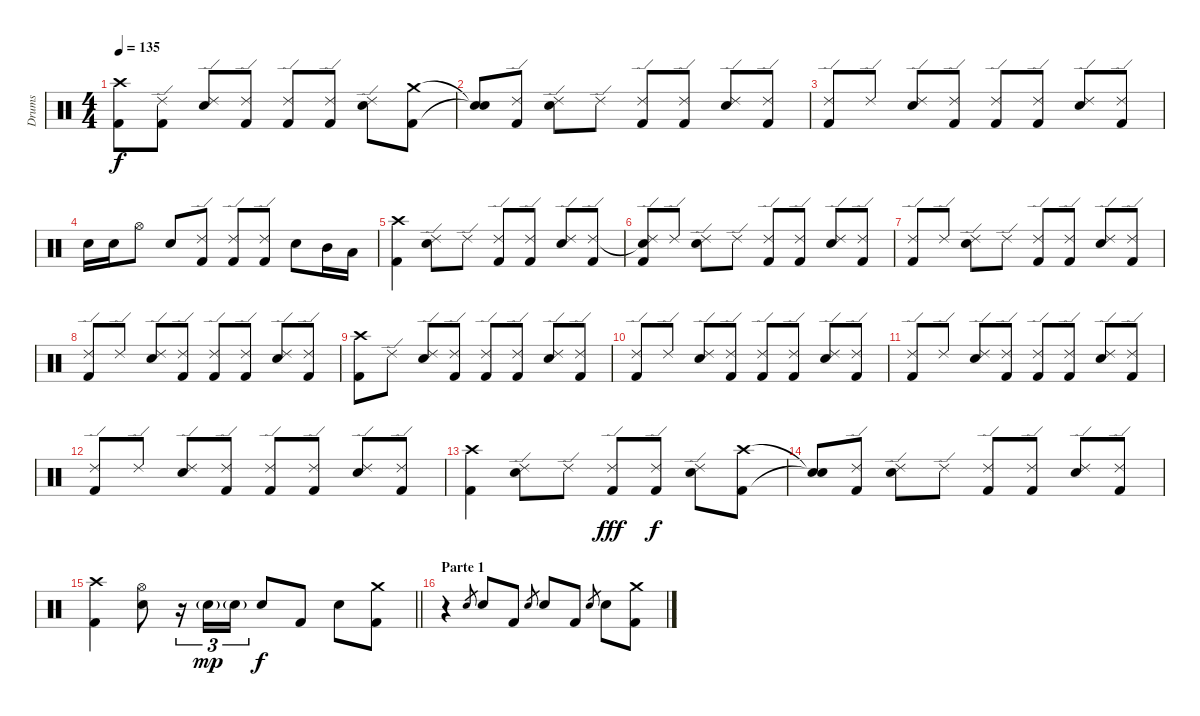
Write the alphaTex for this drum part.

\track ("Drums" "Drums") {instrument percussion}
\staff {score}
\articulation defaults
\ts (4 4)
\tempo 135
\clef neutral
\ks c
("Crash high (hit)"{t} "Kick (hit) 2"{t}).8{dy f} ("Ride (edge) 2" "Kick (hit) 2").8 ("Ride (edge) 2" "Electric Snare (hit)").8 ("Ride (edge) 2" "Kick (hit) 2").8 ("Ride (edge) 2" "Kick (hit) 2").8 ("Ride (edge) 2" "Kick (hit) 2").8 ("Ride (edge) 2" "Electric Snare (hit)").8 ("Crash medium (hit)" "Kick (hit) 2").8 |
("Snare (hit)"{t} "Snare (hit)"{t}).8 ("Ride (edge) 2" "Kick (hit) 2").8 ("Ride (edge) 2" "Electric Snare (hit)").8 "Ride (edge) 2".8 ("Ride (edge) 2" "Kick (hit) 2").8 ("Ride (edge) 2" "Kick (hit) 2").8 ("Ride (edge) 2" "Electric Snare (hit)").8 ("Ride (edge) 2" "Kick (hit) 2").8 |
("Ride (edge) 2" "Kick (hit) 2").8 "Ride (edge) 2".8 ("Ride (edge) 2" "Electric Snare (hit)").8 ("Ride (edge) 2" "Kick (hit) 2").8 ("Ride (edge) 2" "Kick (hit) 2").8 ("Ride (edge) 2" "Kick (hit) 2").8 ("Ride (edge) 2" "Electric Snare (hit)").8 ("Ride (edge) 2" "Kick (hit) 2").8 |
"Electric Snare (hit)".16 "Electric Snare (hit)".16 "Hi-Hat (open)".8 "Electric Snare (hit)".8 ("Ride (edge) 2" "Kick (hit) 2").8 ("Ride (edge) 2" "Kick (hit) 2").8 ("Ride (edge) 2" "Kick (hit) 2").8 "Electric Snare (hit)".8 "Mid Tom (hit)".16 "Low Tom (hit)".16 |
("Crash high (hit)" "Kick (hit) 2").4 ("Ride (edge) 2" "Electric Snare (hit)").8 "Ride (edge) 2".8 ("Ride (edge) 2" "Kick (hit) 2").8 ("Ride (edge) 2" "Kick (hit) 2").8 ("Ride (edge) 2" "Electric Snare (hit)").8 ("Ride (edge) 2" "Kick (hit) 2").8 |
("Snare (hit)"{t} "Ride (edge) 2" "Kick (hit) 2").8 "Ride (edge) 2".8 ("Ride (edge) 2" "Electric Snare (hit)").8 "Ride (edge) 2".8 ("Ride (edge) 2" "Kick (hit) 2").8 ("Ride (edge) 2" "Kick (hit) 2").8 ("Ride (edge) 2" "Electric Snare (hit)").8 ("Ride (edge) 2" "Kick (hit) 2").8 |
("Ride (edge) 2" "Kick (hit) 2").8 "Ride (edge) 2".8 ("Ride (edge) 2" "Electric Snare (hit)").8 "Ride (edge) 2".8 ("Ride (edge) 2" "Kick (hit) 2").8 ("Ride (edge) 2" "Kick (hit) 2").8 ("Ride (edge) 2" "Electric Snare (hit)").8 ("Ride (edge) 2" "Kick (hit) 2").8 |
("Ride (edge) 2" "Kick (hit) 2").8 "Ride (edge) 2".8 ("Ride (edge) 2" "Electric Snare (hit)").8 ("Ride (edge) 2" "Kick (hit) 2").8 ("Ride (edge) 2" "Kick (hit) 2").8 ("Ride (edge) 2" "Kick (hit) 2").8 ("Ride (edge) 2" "Electric Snare (hit)").8 ("Ride (edge) 2" "Kick (hit) 2").8 |
("Crash high (hit)" "Kick (hit) 2").8 "Ride (edge) 2".8 ("Ride (edge) 2" "Electric Snare (hit)").8 ("Ride (edge) 2" "Kick (hit) 2").8 ("Ride (edge) 2" "Kick (hit) 2").8 ("Ride (edge) 2" "Kick (hit) 2").8 ("Ride (edge) 2" "Electric Snare (hit)").8 ("Ride (edge) 2" "Kick (hit) 2").8 |
("Ride (edge) 2" "Kick (hit) 2").8 "Ride (edge) 2".8 ("Ride (edge) 2" "Electric Snare (hit)").8 ("Ride (edge) 2" "Kick (hit) 2").8 ("Ride (edge) 2" "Kick (hit) 2").8 ("Ride (edge) 2" "Kick (hit) 2").8 ("Ride (edge) 2" "Electric Snare (hit)").8 ("Ride (edge) 2" "Kick (hit) 2").8 |
("Ride (edge) 2" "Kick (hit) 2").8 "Ride (edge) 2".8 ("Ride (edge) 2" "Electric Snare (hit)").8 ("Ride (edge) 2" "Kick (hit) 2").8 ("Ride (edge) 2" "Kick (hit) 2").8 ("Ride (edge) 2" "Kick (hit) 2").8 ("Ride (edge) 2" "Electric Snare (hit)").8 ("Ride (edge) 2" "Kick (hit) 2").8 |
("Ride (edge) 2" "Kick (hit) 2").8 "Ride (edge) 2".8 ("Ride (edge) 2" "Electric Snare (hit)").8 ("Ride (edge) 2" "Kick (hit) 2").8 ("Ride (edge) 2" "Kick (hit) 2").8 ("Ride (edge) 2" "Kick (hit) 2").8 ("Ride (edge) 2" "Electric Snare (hit)").8 ("Ride (edge) 2" "Kick (hit) 2").8 |
("Crash high (hit)" "Kick (hit) 2").4 ("Ride (edge) 2" "Electric Snare (hit)").8 "Ride (edge) 2".8 ("Ride (edge) 2" "Kick (hit) 2").8{dy fff} ("Ride (edge) 2" "Kick (hit) 2").8{dy f} ("Ride (edge) 2" "Electric Snare (hit)").8 ("Crash high (hit)" "Kick (hit) 2").8 |
("Snare (hit)"{t} "Snare (hit)"{t}).8 ("Ride (edge) 2" "Kick (hit) 2").8 ("Ride (edge) 2" "Electric Snare (hit)").8 "Ride (edge) 2".8 ("Ride (edge) 2" "Kick (hit) 2").8 ("Ride (edge) 2" "Kick (hit) 2").8 ("Ride (edge) 2" "Electric Snare (hit)").8 ("Ride (edge) 2" "Kick (hit) 2").8 |
\barLineRight lightlight
("Crash high (hit)" "Kick (hit) 2").4 ("Hi-Hat (open)" "Electric Snare (hit)").8 r.16{tu (3 2)} "Electric Snare (hit)"{g}.16{tu (3 2) dy mp} "Electric Snare (hit)"{g}.16{tu (3 2)} "Electric Snare (hit)".8{dy f} "Kick (hit) 2".8 "Electric Snare (hit)".8 ("Crash medium (hit)" "Kick (hit) 2").8 |
\section ("" "Parte 1")
r.4 "Electric Snare (hit)".8{gr} "Electric Snare (hit)".8 "Kick (hit) 2".8 "Electric Snare (hit)".8{gr} "Electric Snare (hit)".8 "Kick (hit) 2".8 "Electric Snare (hit)".8{gr} "Electric Snare (hit)".8 ("Crash medium (hit)" "Kick (hit) 2").8
